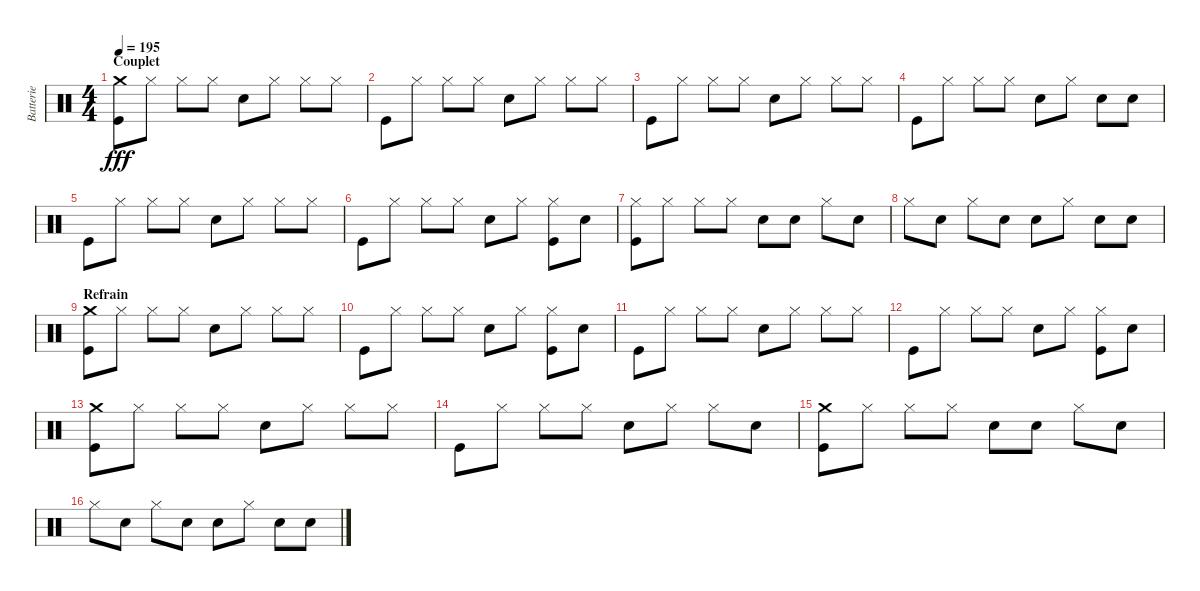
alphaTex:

\track ("Batterie" "Batterie") {instrument percussion}
\staff {score}
\articulation defaults
\ts (4 4)
\section ("" "Couplet")
\tempo 195
\clef neutral
\ks c
("Crash medium (hit)" "Kick (hit)").8{dy fff} "Hi-Hat (closed)".8 "Hi-Hat (closed)".8 "Hi-Hat (closed)".8 "Electric Snare (hit)".8 "Hi-Hat (closed)".8 "Hi-Hat (closed)".8 "Hi-Hat (closed)".8 |
"Kick (hit)".8 "Hi-Hat (closed)".8 "Hi-Hat (closed)".8 "Hi-Hat (closed)".8 "Electric Snare (hit)".8 "Hi-Hat (closed)".8 "Hi-Hat (closed)".8 "Hi-Hat (closed)".8 |
"Kick (hit)".8 "Hi-Hat (closed)".8 "Hi-Hat (closed)".8 "Hi-Hat (closed)".8 "Electric Snare (hit)".8 "Hi-Hat (closed)".8 "Hi-Hat (closed)".8 "Hi-Hat (closed)".8 |
"Kick (hit)".8 "Hi-Hat (closed)".8 "Hi-Hat (closed)".8 "Hi-Hat (closed)".8 "Electric Snare (hit)".8 "Hi-Hat (closed)".8 "Electric Snare (hit)".8 "Electric Snare (hit)".8 |
"Kick (hit)".8 "Hi-Hat (closed)".8 "Hi-Hat (closed)".8 "Hi-Hat (closed)".8 "Electric Snare (hit)".8 "Hi-Hat (closed)".8 "Hi-Hat (closed)".8 "Hi-Hat (closed)".8 |
"Kick (hit)".8 "Hi-Hat (closed)".8 "Hi-Hat (closed)".8 "Hi-Hat (closed)".8 "Electric Snare (hit)".8 "Hi-Hat (closed)".8 ("Hi-Hat (closed)" "Kick (hit)").8 "Electric Snare (hit)".8 |
("Hi-Hat (closed)" "Kick (hit)").8 "Hi-Hat (closed)".8 "Hi-Hat (closed)".8 "Hi-Hat (closed)".8 "Electric Snare (hit)".8 "Electric Snare (hit)".8 "Hi-Hat (closed)".8 "Electric Snare (hit)".8 |
"Hi-Hat (closed)".8 "Electric Snare (hit)".8 "Hi-Hat (closed)".8 "Electric Snare (hit)".8 "Electric Snare (hit)".8 "Hi-Hat (closed)".8 "Electric Snare (hit)".8 "Electric Snare (hit)".8 |
\section ("" "Refrain")
("Crash medium (hit)" "Kick (hit)").8 "Hi-Hat (closed)".8 "Hi-Hat (closed)".8 "Hi-Hat (closed)".8 "Electric Snare (hit)".8 "Hi-Hat (closed)".8 "Hi-Hat (closed)".8 "Hi-Hat (closed)".8 |
"Kick (hit)".8 "Hi-Hat (closed)".8 "Hi-Hat (closed)".8 "Hi-Hat (closed)".8 "Electric Snare (hit)".8 "Hi-Hat (closed)".8 ("Hi-Hat (closed)" "Kick (hit)").8 "Electric Snare (hit)".8 |
"Kick (hit)".8 "Hi-Hat (closed)".8 "Hi-Hat (closed)".8 "Hi-Hat (closed)".8 "Electric Snare (hit)".8 "Hi-Hat (closed)".8 "Hi-Hat (closed)".8 "Hi-Hat (closed)".8 |
"Kick (hit)".8 "Hi-Hat (closed)".8 "Hi-Hat (closed)".8 "Hi-Hat (closed)".8 "Electric Snare (hit)".8 "Hi-Hat (closed)".8 ("Hi-Hat (closed)" "Kick (hit)").8 "Electric Snare (hit)".8 |
("Crash medium (hit)" "Kick (hit)").8 "Hi-Hat (closed)".8 "Hi-Hat (closed)".8 "Hi-Hat (closed)".8 "Electric Snare (hit)".8 "Hi-Hat (closed)".8 "Hi-Hat (closed)".8 "Hi-Hat (closed)".8 |
"Kick (hit)".8 "Hi-Hat (closed)".8 "Hi-Hat (closed)".8 "Hi-Hat (closed)".8 "Electric Snare (hit)".8 "Hi-Hat (closed)".8 "Hi-Hat (closed)".8 "Electric Snare (hit)".8 |
("Crash medium (hit)" "Kick (hit)").8 "Hi-Hat (closed)".8 "Hi-Hat (closed)".8 "Hi-Hat (closed)".8 "Electric Snare (hit)".8 "Electric Snare (hit)".8 "Hi-Hat (closed)".8 "Electric Snare (hit)".8 |
"Hi-Hat (closed)".8 "Electric Snare (hit)".8 "Hi-Hat (closed)".8 "Electric Snare (hit)".8 "Electric Snare (hit)".8 "Hi-Hat (closed)".8 "Electric Snare (hit)".8 "Electric Snare (hit)".8
